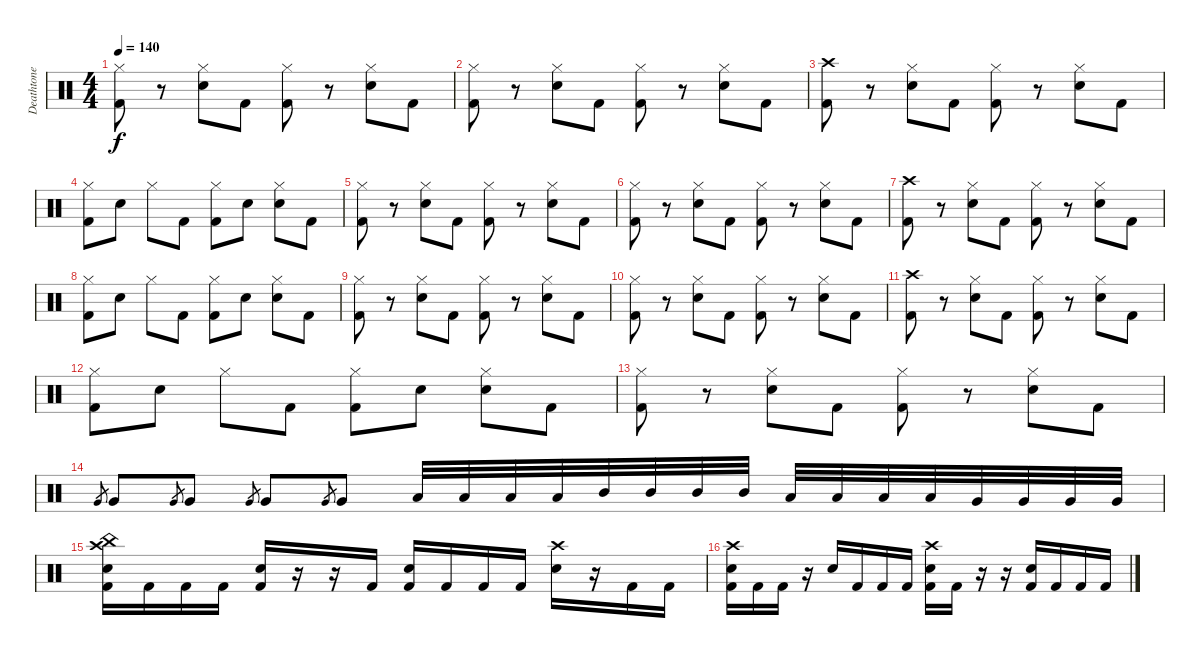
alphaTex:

\track ("Deathtone" "Deathtone") {instrument percussion}
\staff {score}
\articulation defaults
\ts (4 4)
\tempo 140
\clef neutral
\ks c
("Hi-Hat (closed)" "Kick (hit) 2").8{dy f} r.8 ("Hi-Hat (closed)" "Snare (hit) 2").8 "Kick (hit) 2".8 ("Hi-Hat (closed)" "Kick (hit) 2").8 r.8 ("Hi-Hat (closed)" "Snare (hit) 2").8 "Kick (hit) 2".8 |
("Hi-Hat (closed)" "Kick (hit) 2").8 r.8 ("Hi-Hat (closed)" "Snare (hit) 2").8 "Kick (hit) 2".8 ("Hi-Hat (closed)" "Kick (hit) 2").8 r.8 ("Hi-Hat (closed)" "Snare (hit) 2").8 "Kick (hit) 2".8 |
("Crash high (hit)" "Kick (hit) 2").8 r.8 ("Hi-Hat (closed)" "Snare (hit) 2").8 "Kick (hit) 2".8 ("Hi-Hat (closed)" "Kick (hit) 2").8 r.8 ("Hi-Hat (closed)" "Snare (hit) 2").8 "Kick (hit) 2".8 |
("Hi-Hat (closed)" "Kick (hit) 2").8 "Snare (hit) 2".8 "Hi-Hat (closed)".8 "Kick (hit) 2".8 ("Hi-Hat (closed)" "Kick (hit) 2").8 "Snare (hit) 2".8 ("Hi-Hat (closed)" "Snare (hit) 2").8 "Kick (hit) 2".8 |
("Hi-Hat (closed)" "Kick (hit) 2").8 r.8 ("Hi-Hat (closed)" "Snare (hit) 2").8 "Kick (hit) 2".8 ("Hi-Hat (closed)" "Kick (hit) 2").8 r.8 ("Hi-Hat (closed)" "Snare (hit) 2").8 "Kick (hit) 2".8 |
("Hi-Hat (closed)" "Kick (hit) 2").8 r.8 ("Hi-Hat (closed)" "Snare (hit) 2").8 "Kick (hit) 2".8 ("Hi-Hat (closed)" "Kick (hit) 2").8 r.8 ("Hi-Hat (closed)" "Snare (hit) 2").8 "Kick (hit) 2".8 |
("Crash high (hit)" "Kick (hit) 2").8 r.8 ("Hi-Hat (closed)" "Snare (hit) 2").8 "Kick (hit) 2".8 ("Hi-Hat (closed)" "Kick (hit) 2").8 r.8 ("Hi-Hat (closed)" "Snare (hit) 2").8 "Kick (hit) 2".8 |
("Hi-Hat (closed)" "Kick (hit) 2").8 "Snare (hit) 2".8 "Hi-Hat (closed)".8 "Kick (hit) 2".8 ("Hi-Hat (closed)" "Kick (hit) 2").8 "Snare (hit) 2".8 ("Hi-Hat (closed)" "Snare (hit) 2").8 "Kick (hit) 2".8 |
("Hi-Hat (closed)" "Kick (hit) 2").8 r.8 ("Hi-Hat (closed)" "Snare (hit) 2").8 "Kick (hit) 2".8 ("Hi-Hat (closed)" "Kick (hit) 2").8 r.8 ("Hi-Hat (closed)" "Snare (hit) 2").8 "Kick (hit) 2".8 |
("Hi-Hat (closed)" "Kick (hit) 2").8 r.8 ("Hi-Hat (closed)" "Snare (hit) 2").8 "Kick (hit) 2".8 ("Hi-Hat (closed)" "Kick (hit) 2").8 r.8 ("Hi-Hat (closed)" "Snare (hit) 2").8 "Kick (hit) 2".8 |
("Crash high (hit)" "Kick (hit) 2").8 r.8 ("Hi-Hat (closed)" "Snare (hit) 2").8 "Kick (hit) 2".8 ("Hi-Hat (closed)" "Kick (hit) 2").8 r.8 ("Hi-Hat (closed)" "Snare (hit) 2").8 "Kick (hit) 2".8 |
("Hi-Hat (closed)" "Kick (hit) 2").8 "Snare (hit) 2".8 "Hi-Hat (closed)".8 "Kick (hit) 2".8 ("Hi-Hat (closed)" "Kick (hit) 2").8 "Snare (hit) 2".8 ("Hi-Hat (closed)" "Snare (hit) 2").8 "Kick (hit) 2".8 |
("Hi-Hat (closed)" "Kick (hit) 2").8 r.8 ("Hi-Hat (closed)" "Snare (hit) 2").8 "Kick (hit) 2".8 ("Hi-Hat (closed)" "Kick (hit) 2").8 r.8 ("Hi-Hat (closed)" "Snare (hit) 2").8 "Kick (hit) 2".8 |
"Very Low Tom (hit)".8{gr} "Very Low Tom (hit)".8 "Very Low Tom (hit)".8{gr} "Very Low Tom (hit)".8 "Very Low Tom (hit)".8{gr} "Very Low Tom (hit)".8 "Very Low Tom (hit)".8{gr} "Very Low Tom (hit)".8 "Low Tom (hit)".32 "Low Tom (hit)".32 "Low Tom (hit)".32 "Low Tom (hit)".32 "Mid Tom (hit)".32 "Mid Tom (hit)".32 "Mid Tom (hit)".32 "Mid Tom (hit)".32 "Low Tom (hit)".32 "Low Tom (hit)".32 "Low Tom (hit)".32 "Low Tom (hit)".32 "Very Low Tom (hit)".32 "Very Low Tom (hit)".32 "Very Low Tom (hit)".32 "Very Low Tom (hit)".32 |
("Crash high (hit)" "China (hit)" "Snare (hit) 2" "Kick (hit) 2").16 "Kick (hit) 2".16 "Kick (hit) 2".16 "Kick (hit) 2".16 ("Snare (hit) 2" "Kick (hit) 2").16 r.16 r.16 "Kick (hit) 2".16 ("Snare (hit) 2" "Kick (hit) 2").16 "Kick (hit) 2".16 "Kick (hit) 2".16 "Kick (hit) 2".16 ("Crash high (hit)" "Snare (hit) 2").16 r.16 "Kick (hit) 2".16 "Kick (hit) 2".16 |
("Crash high (hit)" "Snare (hit) 2" "Kick (hit) 2").16 "Kick (hit) 2".16 "Kick (hit) 2".16 r.16 "Snare (hit) 2".16 "Kick (hit) 2".16 "Kick (hit) 2".16 "Kick (hit) 2".16 ("Crash high (hit)" "Snare (hit) 2" "Kick (hit) 2").16 "Kick (hit) 2".16 r.16 r.16 ("Snare (hit) 2" "Kick (hit) 2").16 "Kick (hit) 2".16 "Kick (hit) 2".16 "Kick (hit) 2".16
